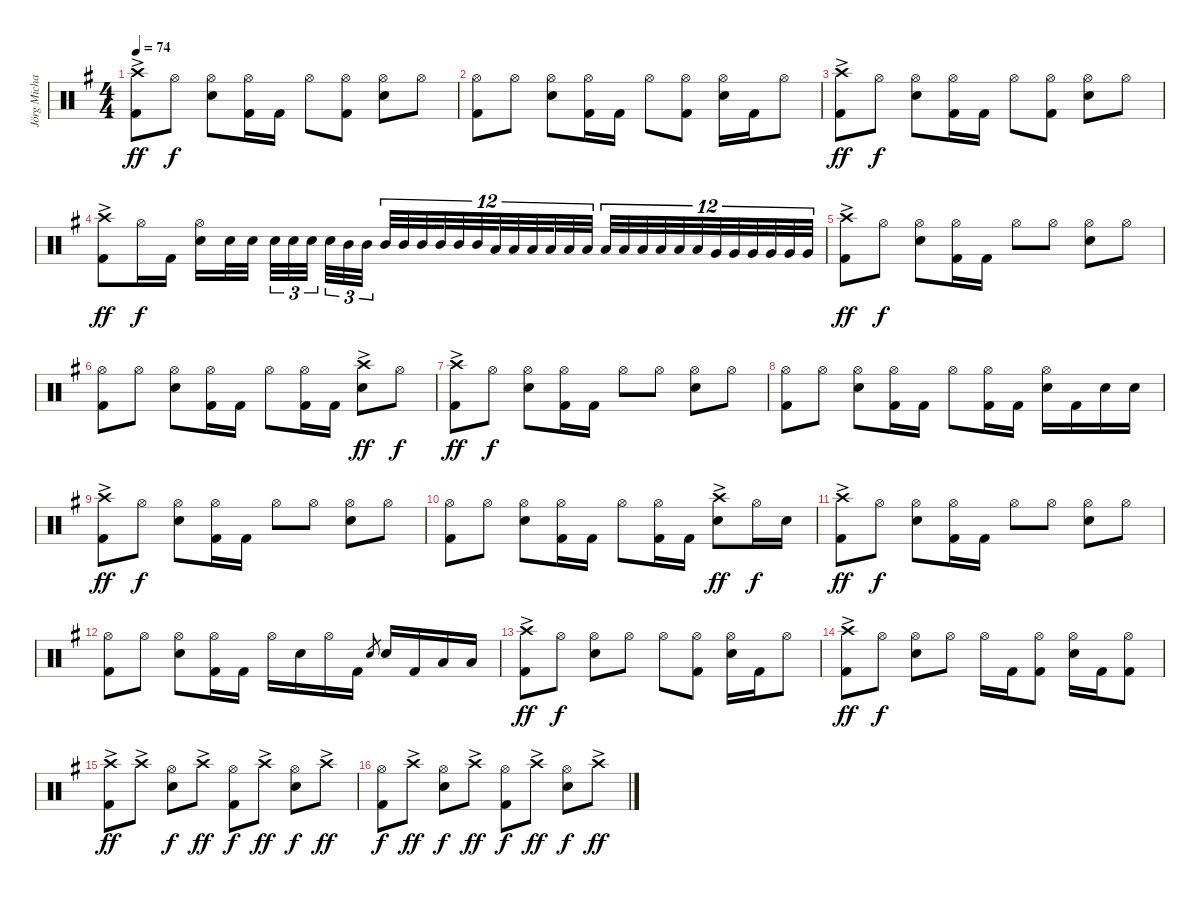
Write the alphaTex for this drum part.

\track ("Jörg Michael" "Jörg Micha") {instrument percussion}
\staff {score}
\articulation defaults
\ts (4 4)
\tempo 74
\clef neutral
\ks g
("Crash high (hit)"{ac} "Kick (hit) 2"{ac}).8{dy ff} "Hi-Hat (open)".8{dy f} ("Electric Snare (hit)" "Hi-Hat (open)").8 ("Hi-Hat (open)" "Kick (hit) 2").16 "Kick (hit) 2".16 "Hi-Hat (open)".8 ("Hi-Hat (open)" "Kick (hit) 2").8 ("Hi-Hat (open)" "Electric Snare (hit)").8 "Hi-Hat (open)".8 |
("Hi-Hat (open)" "Kick (hit) 2").8 "Hi-Hat (open)".8 ("Electric Snare (hit)" "Hi-Hat (open)").8 ("Hi-Hat (open)" "Kick (hit) 2").16 "Kick (hit) 2".16 "Hi-Hat (open)".8 ("Hi-Hat (open)" "Kick (hit) 2").8 ("Hi-Hat (open)" "Electric Snare (hit)").16 "Kick (hit) 2".16 "Hi-Hat (open)".8 |
("Crash high (hit)"{ac} "Kick (hit) 2"{ac}).8{dy ff} "Hi-Hat (open)".8{dy f} ("Electric Snare (hit)" "Hi-Hat (open)").8 ("Hi-Hat (open)" "Kick (hit) 2").16 "Kick (hit) 2".16 "Hi-Hat (open)".8 ("Hi-Hat (open)" "Kick (hit) 2").8 ("Hi-Hat (open)" "Electric Snare (hit)").8 "Hi-Hat (open)".8 |
("Crash high (hit)"{ac} "Kick (hit) 2"{ac}).8{dy ff} "Hi-Hat (open)".16{dy f} "Kick (hit) 2".16 ("Hi-Hat (open)" "Electric Snare (hit)").16 "Electric Snare (hit)".32 "Electric Snare (hit)".32{beam splitsecondary} "Electric Snare (hit)".32{tu (3 2)} "Electric Snare (hit)".32{tu (3 2)} "Electric Snare (hit)".32{tu (3 2) beam splitsecondary} "Electric Snare (hit)".32{tu (3 2)} "Mid Tom (hit)".32{tu (3 2)} "Mid Tom (hit)".32{tu (3 2)} "Mid Tom (hit)".32{tu (12 8)} "Mid Tom (hit)".32{tu (12 8)} "Mid Tom (hit)".32{tu (12 8) beam splitsecondary} "Mid Tom (hit)".32{tu (12 8)} "Mid Tom (hit)".32{tu (12 8)} "Mid Tom (hit)".32{tu (12 8) beam splitsecondary} "Low Tom (hit)".32{tu (12 8)} "Low Tom (hit)".32{tu (12 8)} "Low Tom (hit)".32{tu (12 8) beam splitsecondary} "Low Tom (hit)".32{tu (12 8)} "Low Tom (hit)".32{tu (12 8)} "Low Tom (hit)".32{tu (12 8)} "Low Tom (hit)".32{tu (12 8)} "Low Tom (hit)".32{tu (12 8)} "Low Tom (hit)".32{tu (12 8) beam splitsecondary} "Low Tom (hit)".32{tu (12 8)} "Low Tom (hit)".32{tu (12 8)} "Low Tom (hit)".32{tu (12 8) beam splitsecondary} "Very Low Tom (hit)".32{tu (12 8)} "Very Low Tom (hit)".32{tu (12 8)} "Very Low Tom (hit)".32{tu (12 8) beam splitsecondary} "Very Low Tom (hit)".32{tu (12 8)} "Very Low Tom (hit)".32{tu (12 8)} "Very Low Tom (hit)".32{tu (12 8)} |
("Crash high (hit)"{ac} "Kick (hit) 2"{ac}).8{dy ff} "Hi-Hat (open)".8{dy f} ("Hi-Hat (open)" "Electric Snare (hit)").8 ("Hi-Hat (open)" "Kick (hit) 2").16 "Kick (hit) 2".16 "Hi-Hat (open)".8 "Hi-Hat (open)".8 ("Hi-Hat (open)" "Electric Snare (hit)").8 "Hi-Hat (open)".8 |
("Hi-Hat (open)" "Kick (hit) 2").8 "Hi-Hat (open)".8 ("Hi-Hat (open)" "Electric Snare (hit)").8 ("Hi-Hat (open)" "Kick (hit) 2").16 "Kick (hit) 2".16 "Hi-Hat (open)".8 ("Hi-Hat (open)" "Kick (hit) 2").16 "Kick (hit) 2".16 ("Crash high (hit)"{ac} "Electric Snare (hit)"{ac}).8{dy ff} "Hi-Hat (open)".8{dy f} |
("Crash high (hit)"{ac} "Kick (hit) 2"{ac}).8{dy ff} "Hi-Hat (open)".8{dy f} ("Hi-Hat (open)" "Electric Snare (hit)").8 ("Hi-Hat (open)" "Kick (hit) 2").16 "Kick (hit) 2".16 "Hi-Hat (open)".8 "Hi-Hat (open)".8 ("Hi-Hat (open)" "Electric Snare (hit)").8 "Hi-Hat (open)".8 |
("Hi-Hat (open)" "Kick (hit) 2").8 "Hi-Hat (open)".8 ("Hi-Hat (open)" "Electric Snare (hit)").8 ("Hi-Hat (open)" "Kick (hit) 2").16 "Kick (hit) 2".16 "Hi-Hat (open)".8 ("Hi-Hat (open)" "Kick (hit) 2").16 "Kick (hit) 2".16 ("Hi-Hat (open)" "Electric Snare (hit)").16 "Kick (hit) 2".16 "Electric Snare (hit)".16 "Electric Snare (hit)".16 |
("Crash high (hit)"{ac} "Kick (hit) 2"{ac}).8{dy ff} "Hi-Hat (open)".8{dy f} ("Hi-Hat (open)" "Electric Snare (hit)").8 ("Hi-Hat (open)" "Kick (hit) 2").16 "Kick (hit) 2".16 "Hi-Hat (open)".8 "Hi-Hat (open)".8 ("Hi-Hat (open)" "Electric Snare (hit)").8 "Hi-Hat (open)".8 |
("Hi-Hat (open)" "Kick (hit) 2").8 "Hi-Hat (open)".8 ("Hi-Hat (open)" "Electric Snare (hit)").8 ("Hi-Hat (open)" "Kick (hit) 2").16 "Kick (hit) 2".16 "Hi-Hat (open)".8 ("Hi-Hat (open)" "Kick (hit) 2").16 "Kick (hit) 2".16 ("Crash high (hit)"{ac} "Electric Snare (hit)"{ac}).8{dy ff} "Hi-Hat (open)".16{dy f} "Electric Snare (hit)".16 |
("Crash high (hit)"{ac} "Kick (hit) 2"{ac}).8{dy ff} "Hi-Hat (open)".8{dy f} ("Hi-Hat (open)" "Electric Snare (hit)").8 ("Hi-Hat (open)" "Kick (hit) 2").16 "Kick (hit) 2".16 "Hi-Hat (open)".8 "Hi-Hat (open)".8 ("Hi-Hat (open)" "Electric Snare (hit)").8 "Hi-Hat (open)".8 |
("Hi-Hat (open)" "Kick (hit) 2").8 "Hi-Hat (open)".8 ("Hi-Hat (open)" "Electric Snare (hit)").8 ("Hi-Hat (open)" "Kick (hit) 2").16 "Kick (hit) 2".16 "Hi-Hat (open)".16 "Electric Snare (hit)".16 "Hi-Hat (open)".16 "Kick (hit) 2".16 "Electric Snare (hit)".8{gr} "Electric Snare (hit)".16 "Kick (hit) 2".16 "Low Tom (hit)".16 "Low Tom (hit)".16 |
("Crash high (hit)"{ac} "Kick (hit) 2"{ac}).8{dy ff} "Hi-Hat (open)".8{dy f} ("Hi-Hat (open)" "Electric Snare (hit)").8 "Hi-Hat (open)".8 "Hi-Hat (open)".8 ("Hi-Hat (open)" "Kick (hit) 2").8 ("Hi-Hat (open)" "Electric Snare (hit)").16 "Kick (hit) 2".16 "Hi-Hat (open)".8 |
("Crash high (hit)"{ac} "Kick (hit) 2"{ac}).8{dy ff} "Hi-Hat (open)".8{dy f} ("Hi-Hat (open)" "Electric Snare (hit)").8 "Hi-Hat (open)".8 "Hi-Hat (open)".16 "Kick (hit) 2".16 ("Hi-Hat (open)" "Kick (hit) 2").8 ("Hi-Hat (open)" "Electric Snare (hit)").16 "Kick (hit) 2".16 ("Hi-Hat (open)" "Kick (hit) 2").8 |
("Crash high (hit)"{ac} "Kick (hit) 2"{ac}).8{dy ff} "Crash high (hit)"{ac}.8 ("Hi-Hat (open)" "Electric Snare (hit)").8{dy f} "Crash high (hit)"{ac}.8{dy ff} ("Hi-Hat (open)" "Kick (hit) 2").8{dy f} "Crash high (hit)"{ac}.8{dy ff} ("Hi-Hat (open)" "Electric Snare (hit)").8{dy f} "Crash high (hit)"{ac}.8{dy ff} |
("Hi-Hat (open)" "Kick (hit) 2").8{dy f} "Crash high (hit)"{ac}.8{dy ff} ("Hi-Hat (open)" "Electric Snare (hit)").8{dy f} "Crash high (hit)"{ac}.8{dy ff} ("Hi-Hat (open)" "Kick (hit) 2").8{dy f} "Crash high (hit)"{ac}.8{dy ff} ("Hi-Hat (open)" "Electric Snare (hit)").8{dy f} "Crash high (hit)"{ac}.8{dy ff}
